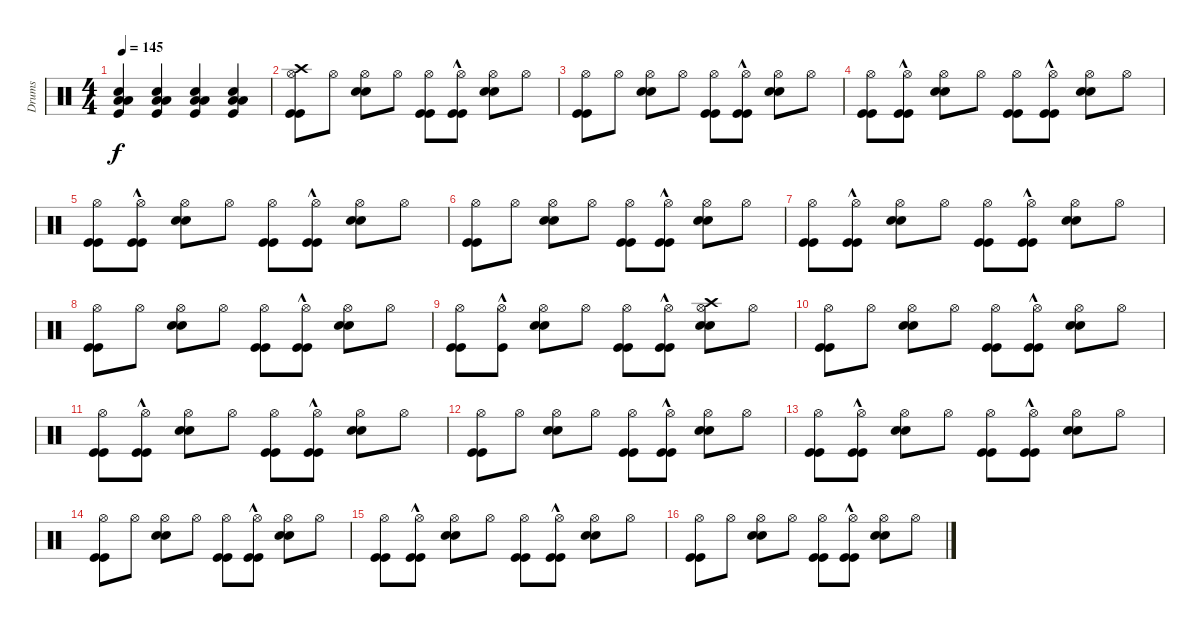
\track ("Drums" "Drums") {instrument percussion}
\staff {score}
\articulation defaults
\ts (4 4)
\tempo 145
\clef neutral
\ks c
("Kick (hit)" "Snare (hit) 2" "Low Floor Tom (hit)" "Low Floor Tom (hit)").4{dy f} ("Kick (hit)" "Snare (hit) 2" "Low Floor Tom (hit)" "Low Floor Tom (hit)").4 ("Kick (hit)" "Snare (hit) 2" "Low Floor Tom (hit)" "Low Floor Tom (hit)").4 ("Kick (hit)" "Snare (hit) 2" "Low Floor Tom (hit)" "Low Floor Tom (hit)").4 |
("Kick (hit)" "Kick (hit)" "Hi-Hat (open)" "Crash high (hit)").8 "Hi-Hat (open)".8 ("Snare (hit) 2" "Snare (hit) 2" "Hi-Hat (open)").8 "Hi-Hat (open)".8 ("Kick (hit)" "Kick (hit)" "Hi-Hat (open)").8 ("Kick (hit)"{hac} "Kick (hit)"{hac} "Hi-Hat (open)").8 ("Snare (hit) 2" "Snare (hit) 2" "Hi-Hat (open)").8 "Hi-Hat (open)".8 |
("Kick (hit)" "Kick (hit)" "Hi-Hat (open)").8 "Hi-Hat (open)".8 ("Snare (hit) 2" "Snare (hit) 2" "Hi-Hat (open)").8 "Hi-Hat (open)".8 ("Kick (hit)" "Kick (hit)" "Hi-Hat (open)").8 ("Kick (hit)"{hac} "Kick (hit)"{hac} "Hi-Hat (open)").8 ("Snare (hit) 2" "Snare (hit) 2" "Hi-Hat (open)").8 "Hi-Hat (open)".8 |
("Kick (hit)" "Kick (hit)" "Hi-Hat (open)").8 ("Kick (hit)"{hac} "Kick (hit)"{hac} "Hi-Hat (open)").8 ("Snare (hit) 2" "Snare (hit) 2" "Hi-Hat (open)").8 "Hi-Hat (open)".8 ("Kick (hit)" "Kick (hit)" "Hi-Hat (open)").8 ("Kick (hit)"{hac} "Kick (hit)"{hac} "Hi-Hat (open)").8 ("Snare (hit) 2" "Snare (hit) 2" "Hi-Hat (open)").8 "Hi-Hat (open)".8 |
("Kick (hit)" "Kick (hit)" "Hi-Hat (open)").8 ("Kick (hit)"{hac} "Kick (hit)"{hac} "Hi-Hat (open)").8 ("Snare (hit) 2" "Snare (hit) 2" "Hi-Hat (open)").8 "Hi-Hat (open)".8 ("Kick (hit)" "Kick (hit)" "Hi-Hat (open)").8 ("Kick (hit)"{hac} "Kick (hit)"{hac} "Hi-Hat (open)").8 ("Snare (hit) 2" "Snare (hit) 2" "Hi-Hat (open)").8 "Hi-Hat (open)".8 |
("Kick (hit)" "Kick (hit)" "Hi-Hat (open)").8 "Hi-Hat (open)".8 ("Snare (hit) 2" "Snare (hit) 2" "Hi-Hat (open)").8 "Hi-Hat (open)".8 ("Kick (hit)" "Kick (hit)" "Hi-Hat (open)").8 ("Kick (hit)"{hac} "Kick (hit)"{hac} "Hi-Hat (open)").8 ("Snare (hit) 2" "Snare (hit) 2" "Hi-Hat (open)").8 "Hi-Hat (open)".8 |
("Kick (hit)" "Kick (hit)" "Hi-Hat (open)").8 ("Kick (hit)"{hac} "Kick (hit)"{hac} "Hi-Hat (open)").8 ("Snare (hit) 2" "Snare (hit) 2" "Hi-Hat (open)").8 "Hi-Hat (open)".8 ("Kick (hit)" "Kick (hit)" "Hi-Hat (open)").8 ("Kick (hit)"{hac} "Kick (hit)"{hac} "Hi-Hat (open)").8 ("Snare (hit) 2" "Snare (hit) 2" "Hi-Hat (open)").8 "Hi-Hat (open)".8 |
("Kick (hit)" "Kick (hit)" "Hi-Hat (open)").8 "Hi-Hat (open)".8 ("Snare (hit) 2" "Snare (hit) 2" "Hi-Hat (open)").8 "Hi-Hat (open)".8 ("Kick (hit)" "Kick (hit)" "Hi-Hat (open)").8 ("Kick (hit)"{hac} "Kick (hit)"{hac} "Hi-Hat (open)").8 ("Snare (hit) 2" "Snare (hit) 2" "Hi-Hat (open)").8 "Hi-Hat (open)".8 |
("Kick (hit)" "Kick (hit)" "Hi-Hat (open)").8 ("Kick (hit)"{hac} "Hi-Hat (open)").8 ("Snare (hit) 2" "Snare (hit) 2" "Hi-Hat (open)").8 "Hi-Hat (open)".8 ("Kick (hit)" "Kick (hit)" "Hi-Hat (open)").8 ("Kick (hit)"{hac} "Kick (hit)"{hac} "Hi-Hat (open)").8 ("Snare (hit) 2" "Snare (hit) 2" "Hi-Hat (open)" "Crash high (hit)").8 "Hi-Hat (open)".8 |
("Kick (hit)" "Kick (hit)" "Hi-Hat (open)").8 "Hi-Hat (open)".8 ("Snare (hit) 2" "Snare (hit) 2" "Hi-Hat (open)").8 "Hi-Hat (open)".8 ("Kick (hit)" "Kick (hit)" "Hi-Hat (open)").8 ("Kick (hit)"{hac} "Kick (hit)"{hac} "Hi-Hat (open)").8 ("Snare (hit) 2" "Snare (hit) 2" "Hi-Hat (open)").8 "Hi-Hat (open)".8 |
("Kick (hit)" "Kick (hit)" "Hi-Hat (open)").8 ("Kick (hit)"{hac} "Kick (hit)"{hac} "Hi-Hat (open)").8 ("Snare (hit) 2" "Snare (hit) 2" "Hi-Hat (open)").8 "Hi-Hat (open)".8 ("Kick (hit)" "Kick (hit)" "Hi-Hat (open)").8 ("Kick (hit)"{hac} "Kick (hit)"{hac} "Hi-Hat (open)").8 ("Snare (hit) 2" "Snare (hit) 2" "Hi-Hat (open)").8 "Hi-Hat (open)".8 |
("Kick (hit)" "Kick (hit)" "Hi-Hat (open)").8 "Hi-Hat (open)".8 ("Snare (hit) 2" "Snare (hit) 2" "Hi-Hat (open)").8 "Hi-Hat (open)".8 ("Kick (hit)" "Kick (hit)" "Hi-Hat (open)").8 ("Kick (hit)"{hac} "Kick (hit)"{hac} "Hi-Hat (open)").8 ("Snare (hit) 2" "Snare (hit) 2" "Hi-Hat (open)").8 "Hi-Hat (open)".8 |
("Kick (hit)" "Kick (hit)" "Hi-Hat (open)").8 ("Kick (hit)"{hac} "Kick (hit)"{hac} "Hi-Hat (open)").8 ("Snare (hit) 2" "Snare (hit) 2" "Hi-Hat (open)").8 "Hi-Hat (open)".8 ("Kick (hit)" "Kick (hit)" "Hi-Hat (open)").8 ("Kick (hit)"{hac} "Kick (hit)"{hac} "Hi-Hat (open)").8 ("Snare (hit) 2" "Snare (hit) 2" "Hi-Hat (open)").8 "Hi-Hat (open)".8 |
("Kick (hit)" "Kick (hit)" "Hi-Hat (open)").8 "Hi-Hat (open)".8 ("Snare (hit) 2" "Snare (hit) 2" "Hi-Hat (open)").8 "Hi-Hat (open)".8 ("Kick (hit)" "Kick (hit)" "Hi-Hat (open)").8 ("Kick (hit)"{hac} "Kick (hit)"{hac} "Hi-Hat (open)").8 ("Snare (hit) 2" "Snare (hit) 2" "Hi-Hat (open)").8 "Hi-Hat (open)".8 |
("Kick (hit)" "Kick (hit)" "Hi-Hat (open)").8 ("Kick (hit)"{hac} "Kick (hit)"{hac} "Hi-Hat (open)").8 ("Snare (hit) 2" "Snare (hit) 2" "Hi-Hat (open)").8 "Hi-Hat (open)".8 ("Kick (hit)" "Kick (hit)" "Hi-Hat (open)").8 ("Kick (hit)"{hac} "Kick (hit)"{hac} "Hi-Hat (open)").8 ("Snare (hit) 2" "Snare (hit) 2" "Hi-Hat (open)").8 "Hi-Hat (open)".8 |
("Kick (hit)" "Kick (hit)" "Hi-Hat (open)").8 "Hi-Hat (open)".8 ("Snare (hit) 2" "Snare (hit) 2" "Hi-Hat (open)").8 "Hi-Hat (open)".8 ("Kick (hit)" "Kick (hit)" "Hi-Hat (open)").8 ("Kick (hit)"{hac} "Kick (hit)"{hac} "Hi-Hat (open)").8 ("Snare (hit) 2" "Snare (hit) 2" "Hi-Hat (open)").8 "Hi-Hat (open)".8
